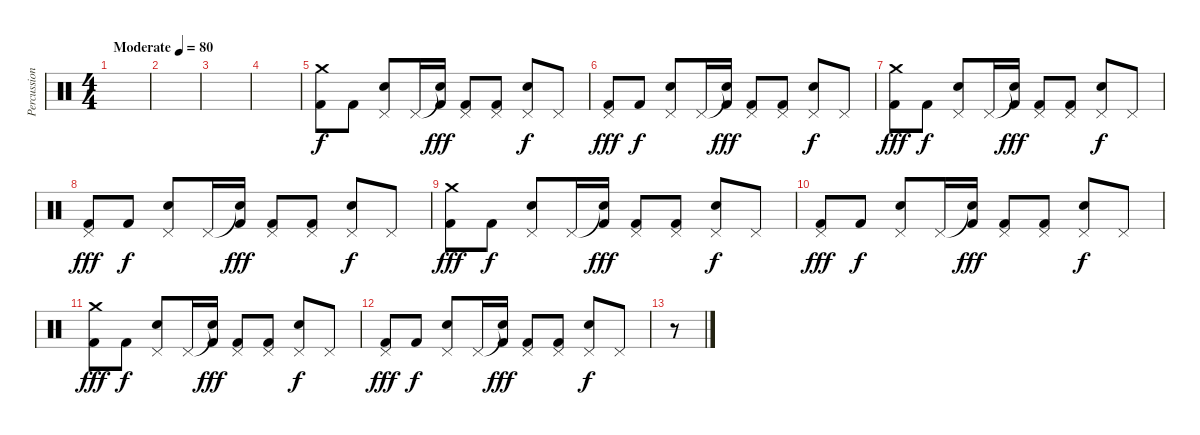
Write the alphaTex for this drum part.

\track ("Percussion" "Percussion") {instrument percussion}
\staff {score}
\articulation defaults
\ts (4 4)
\tempo (80 "Moderate")
\clef neutral
\ks c
|
|
|
|
("Crash medium (hit)" "Kick (hit) 2").8 "Kick (hit) 2".8{dy f} ("Pedal Hi-Hat (hit)" "Snare (hit) 2").8 "Pedal Hi-Hat (hit)".16 ("Snare (hit)"{t} "Kick (hit) 2").16{dy fff} ("Pedal Hi-Hat (hit)" "Kick (hit) 2").8 ("Pedal Hi-Hat (hit)" "Kick (hit) 2").8 ("Pedal Hi-Hat (hit)" "Snare (hit) 2").8{dy f} "Pedal Hi-Hat (hit)".8 |
("Pedal Hi-Hat (hit)" "Kick (hit) 2").8{dy fff} "Kick (hit) 2".8{dy f} ("Pedal Hi-Hat (hit)" "Snare (hit) 2").8 "Pedal Hi-Hat (hit)".16 ("Snare (hit)"{t} "Kick (hit) 2").16{dy fff} ("Pedal Hi-Hat (hit)" "Kick (hit) 2").8 ("Pedal Hi-Hat (hit)" "Kick (hit) 2").8 ("Pedal Hi-Hat (hit)" "Snare (hit) 2").8{dy f} "Pedal Hi-Hat (hit)".8 |
("Crash medium (hit)" "Kick (hit) 2").8{dy fff} "Kick (hit) 2".8{dy f} ("Pedal Hi-Hat (hit)" "Snare (hit) 2").8 "Pedal Hi-Hat (hit)".16 ("Snare (hit)"{t} "Kick (hit) 2").16{dy fff} ("Pedal Hi-Hat (hit)" "Kick (hit) 2").8 ("Pedal Hi-Hat (hit)" "Kick (hit) 2").8 ("Pedal Hi-Hat (hit)" "Snare (hit) 2").8{dy f} "Pedal Hi-Hat (hit)".8 |
("Pedal Hi-Hat (hit)" "Kick (hit) 2").8{dy fff} "Kick (hit) 2".8{dy f} ("Pedal Hi-Hat (hit)" "Snare (hit) 2").8 "Pedal Hi-Hat (hit)".16 ("Snare (hit)"{t} "Kick (hit) 2").16{dy fff} ("Pedal Hi-Hat (hit)" "Kick (hit) 2").8 ("Pedal Hi-Hat (hit)" "Kick (hit) 2").8 ("Pedal Hi-Hat (hit)" "Snare (hit) 2").8{dy f} "Pedal Hi-Hat (hit)".8 |
("Crash medium (hit)" "Kick (hit) 2").8{dy fff} "Kick (hit) 2".8{dy f} ("Pedal Hi-Hat (hit)" "Snare (hit) 2").8 "Pedal Hi-Hat (hit)".16 ("Snare (hit)"{t} "Kick (hit) 2").16{dy fff} ("Pedal Hi-Hat (hit)" "Kick (hit) 2").8 ("Pedal Hi-Hat (hit)" "Kick (hit) 2").8 ("Pedal Hi-Hat (hit)" "Snare (hit) 2").8{dy f} "Pedal Hi-Hat (hit)".8 |
("Pedal Hi-Hat (hit)" "Kick (hit) 2").8{dy fff} "Kick (hit) 2".8{dy f} ("Pedal Hi-Hat (hit)" "Snare (hit) 2").8 "Pedal Hi-Hat (hit)".16 ("Snare (hit)"{t} "Kick (hit) 2").16{dy fff} ("Pedal Hi-Hat (hit)" "Kick (hit) 2").8 ("Pedal Hi-Hat (hit)" "Kick (hit) 2").8 ("Pedal Hi-Hat (hit)" "Snare (hit) 2").8{dy f} "Pedal Hi-Hat (hit)".8 |
("Crash medium (hit)" "Kick (hit) 2").8{dy fff} "Kick (hit) 2".8{dy f} ("Pedal Hi-Hat (hit)" "Snare (hit) 2").8 "Pedal Hi-Hat (hit)".16 ("Snare (hit)"{t} "Kick (hit) 2").16{dy fff} ("Pedal Hi-Hat (hit)" "Kick (hit) 2").8 ("Pedal Hi-Hat (hit)" "Kick (hit) 2").8 ("Pedal Hi-Hat (hit)" "Snare (hit) 2").8{dy f} "Pedal Hi-Hat (hit)".8 |
("Pedal Hi-Hat (hit)" "Kick (hit) 2").8{dy fff} "Kick (hit) 2".8{dy f} ("Pedal Hi-Hat (hit)" "Snare (hit) 2").8 "Pedal Hi-Hat (hit)".16 ("Snare (hit)"{t} "Kick (hit) 2").16{dy fff} ("Pedal Hi-Hat (hit)" "Kick (hit) 2").8 ("Pedal Hi-Hat (hit)" "Kick (hit) 2").8 ("Pedal Hi-Hat (hit)" "Snare (hit) 2").8{dy f} "Pedal Hi-Hat (hit)".8 |
r.8
